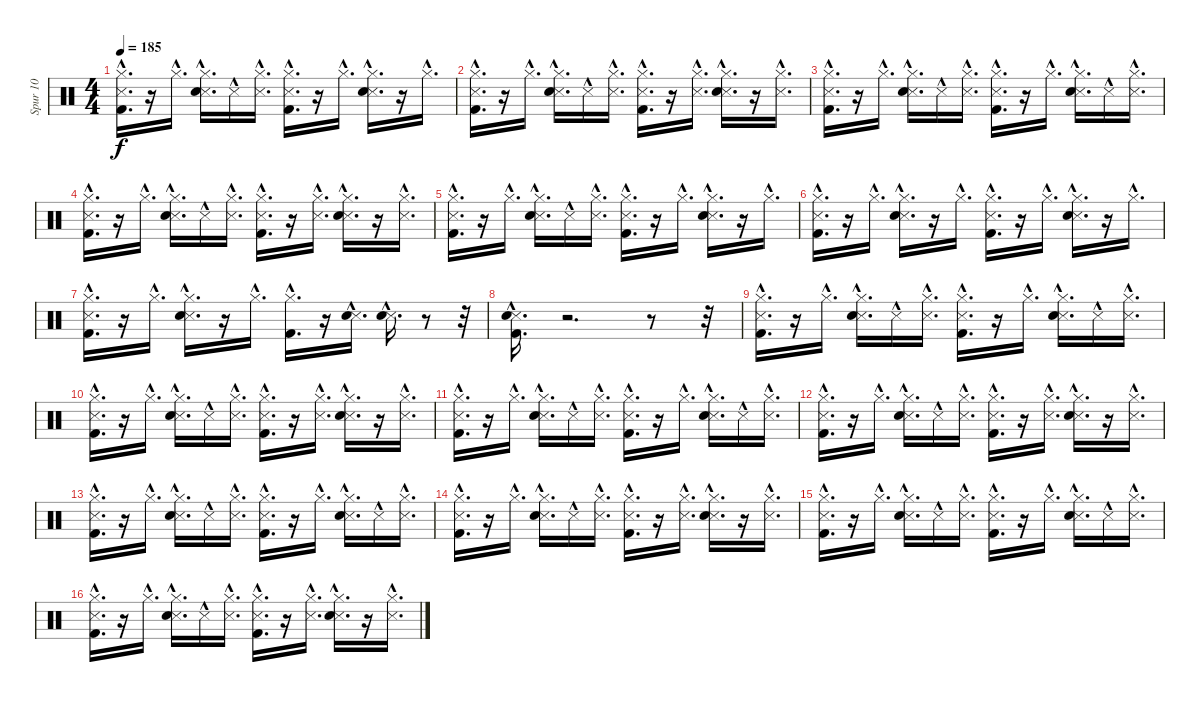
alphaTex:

\track ("Spur 10" "Spur 10") {instrument percussion}
\staff {score}
\articulation defaults
\ts (4 4)
\tempo 185
\clef neutral
\ks c
("Metronome (hit)"{hac} "Hi-Hat (closed)"{hac} "Kick (hit) 2"{hac}).16{d dy f} r.16 "Hi-Hat (closed)"{hac}.16{d} ("Metronome (hit)"{hac} "Hi-Hat (closed)"{hac} "Snare (hit) 2"{hac}).16{d} "Metronome (hit)"{hac}.16 ("Metronome (hit)"{hac} "Hi-Hat (closed)"{hac}).16{d} ("Metronome (hit)"{hac} "Hi-Hat (closed)"{hac} "Kick (hit) 2"{hac}).16{d} r.16 "Hi-Hat (closed)"{hac}.16{d} ("Metronome (hit)"{hac} "Hi-Hat (closed)"{hac} "Snare (hit) 2"{hac}).16{d} r.16 "Hi-Hat (closed)"{hac}.16{d} |
("Metronome (hit)"{hac} "Kick (hit) 2"{hac} "Hi-Hat (closed)"{hac}).16{d} r.16 "Hi-Hat (closed)"{hac}.16{d} ("Metronome (hit)"{hac} "Snare (hit) 2"{hac} "Hi-Hat (closed)"{hac}).16{d} "Metronome (hit)"{hac}.16 ("Metronome (hit)"{hac} "Hi-Hat (closed)"{hac}).16{d} ("Metronome (hit)"{hac} "Kick (hit) 2"{hac} "Hi-Hat (closed)"{hac}).16{d} r.16 ("Metronome (hit)"{hac} "Hi-Hat (closed)"{hac}).16{d} ("Metronome (hit)"{hac} "Snare (hit) 2"{hac} "Hi-Hat (closed)"{hac}).16{d} r.16 ("Metronome (hit)"{hac} "Hi-Hat (closed)"{hac}).16{d} |
("Metronome (hit)"{hac} "Kick (hit) 2"{hac} "Hi-Hat (closed)"{hac}).16{d} r.16 "Hi-Hat (closed)"{hac}.16{d} ("Metronome (hit)"{hac} "Snare (hit) 2"{hac} "Hi-Hat (closed)"{hac}).16{d} "Metronome (hit)"{hac}.16 ("Metronome (hit)"{hac} "Hi-Hat (closed)"{hac}).16{d} ("Metronome (hit)"{hac} "Kick (hit) 2"{hac} "Hi-Hat (closed)"{hac}).16{d} r.16 "Hi-Hat (closed)"{hac}.16{d} ("Metronome (hit)"{hac} "Snare (hit) 2"{hac} "Hi-Hat (closed)"{hac}).16{d} "Metronome (hit)"{hac}.16 ("Metronome (hit)"{hac} "Hi-Hat (closed)"{hac}).16{d} |
("Metronome (hit)"{hac} "Kick (hit) 2"{hac} "Hi-Hat (closed)"{hac}).16{d} r.16 "Hi-Hat (closed)"{hac}.16{d} ("Metronome (hit)"{hac} "Snare (hit) 2"{hac} "Hi-Hat (closed)"{hac}).16{d} "Metronome (hit)"{hac}.16 ("Metronome (hit)"{hac} "Hi-Hat (closed)"{hac}).16{d} ("Metronome (hit)"{hac} "Kick (hit) 2"{hac} "Hi-Hat (closed)"{hac}).16{d} r.16 ("Metronome (hit)"{hac} "Hi-Hat (closed)"{hac}).16{d} ("Metronome (hit)"{hac} "Snare (hit) 2"{hac} "Hi-Hat (closed)"{hac}).16{d} r.16 ("Metronome (hit)"{hac} "Hi-Hat (closed)"{hac}).16{d} |
("Metronome (hit)"{hac} "Hi-Hat (closed)"{hac} "Kick (hit) 2"{hac}).16{d} r.16 "Hi-Hat (closed)"{hac}.16{d} ("Metronome (hit)"{hac} "Hi-Hat (closed)"{hac} "Snare (hit) 2"{hac}).16{d} "Metronome (hit)"{hac}.16 ("Metronome (hit)"{hac} "Hi-Hat (closed)"{hac}).16{d} ("Metronome (hit)"{hac} "Hi-Hat (closed)"{hac} "Kick (hit) 2"{hac}).16{d} r.16 "Hi-Hat (closed)"{hac}.16{d} ("Metronome (hit)"{hac} "Hi-Hat (closed)"{hac} "Snare (hit) 2"{hac}).16{d} r.16 "Hi-Hat (closed)"{hac}.16{d} |
("Metronome (hit)"{hac} "Kick (hit) 2"{hac} "Hi-Hat (closed)"{hac}).16{d} r.16 "Hi-Hat (closed)"{hac}.16{d} ("Metronome (hit)"{hac} "Snare (hit) 2"{hac} "Hi-Hat (closed)"{hac}).16{d} r.16 "Hi-Hat (closed)"{hac}.16{d} ("Metronome (hit)"{hac} "Kick (hit) 2"{hac} "Hi-Hat (closed)"{hac}).16{d} r.16 "Hi-Hat (closed)"{hac}.16{d} ("Metronome (hit)"{hac} "Snare (hit) 2"{hac} "Hi-Hat (closed)"{hac}).16{d} r.16 "Hi-Hat (closed)"{hac}.16{d} |
("Metronome (hit)"{hac} "Kick (hit) 2"{hac} "Hi-Hat (closed)"{hac}).16{d} r.16 "Hi-Hat (closed)"{hac}.16{d} ("Metronome (hit)"{hac} "Snare (hit) 2"{hac} "Hi-Hat (closed)"{hac}).16{d} r.16 "Hi-Hat (closed)"{hac}.16{d} ("Kick (hit) 2"{hac} "Hi-Hat (closed)"{hac}).16{d} r.16 ("Metronome (hit)"{hac} "Snare (hit) 2"{hac}).16{d} ("Metronome (hit)"{hac} "Snare (hit) 2"{hac}).16{d} r.8 r.32 |
("Metronome (hit)"{hac} "Snare (hit) 2"{hac} "Kick (hit) 2"{hac}).16{d} r.2{d} r.8 r.32 |
("Metronome (hit)"{hac} "Hi-Hat (closed)"{hac} "Kick (hit) 2"{hac}).16{d} r.16 "Hi-Hat (closed)"{hac}.16{d} ("Metronome (hit)"{hac} "Hi-Hat (closed)"{hac} "Snare (hit) 2"{hac}).16{d} "Metronome (hit)"{hac}.16 ("Metronome (hit)"{hac} "Hi-Hat (closed)"{hac}).16{d} ("Metronome (hit)"{hac} "Hi-Hat (closed)"{hac} "Kick (hit) 2"{hac}).16{d} r.16 "Hi-Hat (closed)"{hac}.16{d} ("Metronome (hit)"{hac} "Hi-Hat (closed)"{hac} "Snare (hit) 2"{hac}).16{d} "Metronome (hit)"{hac}.16 ("Metronome (hit)"{hac} "Hi-Hat (closed)"{hac}).16{d} |
("Metronome (hit)"{hac} "Kick (hit) 2"{hac} "Hi-Hat (closed)"{hac}).16{d} r.16 "Hi-Hat (closed)"{hac}.16{d} ("Metronome (hit)"{hac} "Snare (hit) 2"{hac} "Hi-Hat (closed)"{hac}).16{d} "Metronome (hit)"{hac}.16 ("Metronome (hit)"{hac} "Hi-Hat (closed)"{hac}).16{d} ("Metronome (hit)"{hac} "Kick (hit) 2"{hac} "Hi-Hat (closed)"{hac}).16{d} r.16 ("Metronome (hit)"{hac} "Hi-Hat (closed)"{hac}).16{d} ("Metronome (hit)"{hac} "Snare (hit) 2"{hac} "Hi-Hat (closed)"{hac}).16{d} r.16 ("Metronome (hit)"{hac} "Hi-Hat (closed)"{hac}).16{d} |
("Metronome (hit)"{hac} "Kick (hit) 2"{hac} "Hi-Hat (closed)"{hac}).16{d} r.16 "Hi-Hat (closed)"{hac}.16{d} ("Metronome (hit)"{hac} "Snare (hit) 2"{hac} "Hi-Hat (closed)"{hac}).16{d} "Metronome (hit)"{hac}.16 ("Metronome (hit)"{hac} "Hi-Hat (closed)"{hac}).16{d} ("Metronome (hit)"{hac} "Kick (hit) 2"{hac} "Hi-Hat (closed)"{hac}).16{d} r.16 "Hi-Hat (closed)"{hac}.16{d} ("Metronome (hit)"{hac} "Snare (hit) 2"{hac} "Hi-Hat (closed)"{hac}).16{d} "Metronome (hit)"{hac}.16 ("Metronome (hit)"{hac} "Hi-Hat (closed)"{hac}).16{d} |
("Metronome (hit)"{hac} "Kick (hit) 2"{hac} "Hi-Hat (closed)"{hac}).16{d} r.16 "Hi-Hat (closed)"{hac}.16{d} ("Metronome (hit)"{hac} "Snare (hit) 2"{hac} "Hi-Hat (closed)"{hac}).16{d} "Metronome (hit)"{hac}.16 ("Metronome (hit)"{hac} "Hi-Hat (closed)"{hac}).16{d} ("Metronome (hit)"{hac} "Kick (hit) 2"{hac} "Hi-Hat (closed)"{hac}).16{d} r.16 ("Metronome (hit)"{hac} "Hi-Hat (closed)"{hac}).16{d} ("Metronome (hit)"{hac} "Snare (hit) 2"{hac} "Hi-Hat (closed)"{hac}).16{d} r.16 ("Metronome (hit)"{hac} "Hi-Hat (closed)"{hac}).16{d} |
("Metronome (hit)"{hac} "Hi-Hat (closed)"{hac} "Kick (hit) 2"{hac}).16{d} r.16 "Hi-Hat (closed)"{hac}.16{d} ("Metronome (hit)"{hac} "Hi-Hat (closed)"{hac} "Snare (hit) 2"{hac}).16{d} "Metronome (hit)"{hac}.16 ("Metronome (hit)"{hac} "Hi-Hat (closed)"{hac}).16{d} ("Metronome (hit)"{hac} "Hi-Hat (closed)"{hac} "Kick (hit) 2"{hac}).16{d} r.16 "Hi-Hat (closed)"{hac}.16{d} ("Metronome (hit)"{hac} "Hi-Hat (closed)"{hac} "Snare (hit) 2"{hac}).16{d} "Metronome (hit)"{hac}.16 ("Metronome (hit)"{hac} "Hi-Hat (closed)"{hac}).16{d} |
("Metronome (hit)"{hac} "Kick (hit) 2"{hac} "Hi-Hat (closed)"{hac}).16{d} r.16 "Hi-Hat (closed)"{hac}.16{d} ("Metronome (hit)"{hac} "Snare (hit) 2"{hac} "Hi-Hat (closed)"{hac}).16{d} "Metronome (hit)"{hac}.16 ("Metronome (hit)"{hac} "Hi-Hat (closed)"{hac}).16{d} ("Metronome (hit)"{hac} "Kick (hit) 2"{hac} "Hi-Hat (closed)"{hac}).16{d} r.16 ("Metronome (hit)"{hac} "Hi-Hat (closed)"{hac}).16{d} ("Metronome (hit)"{hac} "Snare (hit) 2"{hac} "Hi-Hat (closed)"{hac}).16{d} r.16 ("Metronome (hit)"{hac} "Hi-Hat (closed)"{hac}).16{d} |
("Metronome (hit)"{hac} "Kick (hit) 2"{hac} "Hi-Hat (closed)"{hac}).16{d} r.16 "Hi-Hat (closed)"{hac}.16{d} ("Metronome (hit)"{hac} "Snare (hit) 2"{hac} "Hi-Hat (closed)"{hac}).16{d} "Metronome (hit)"{hac}.16 ("Metronome (hit)"{hac} "Hi-Hat (closed)"{hac}).16{d} ("Metronome (hit)"{hac} "Kick (hit) 2"{hac} "Hi-Hat (closed)"{hac}).16{d} r.16 "Hi-Hat (closed)"{hac}.16{d} ("Metronome (hit)"{hac} "Snare (hit) 2"{hac} "Hi-Hat (closed)"{hac}).16{d} "Metronome (hit)"{hac}.16 ("Metronome (hit)"{hac} "Hi-Hat (closed)"{hac}).16{d} |
("Metronome (hit)"{hac} "Kick (hit) 2"{hac} "Hi-Hat (closed)"{hac}).16{d} r.16 "Hi-Hat (closed)"{hac}.16{d} ("Metronome (hit)"{hac} "Snare (hit) 2"{hac} "Hi-Hat (closed)"{hac}).16{d} "Metronome (hit)"{hac}.16 ("Metronome (hit)"{hac} "Hi-Hat (closed)"{hac}).16{d} ("Metronome (hit)"{hac} "Kick (hit) 2"{hac} "Hi-Hat (closed)"{hac}).16{d} r.16 ("Metronome (hit)"{hac} "Hi-Hat (closed)"{hac}).16{d} ("Metronome (hit)"{hac} "Snare (hit) 2"{hac} "Hi-Hat (closed)"{hac}).16{d} r.16 ("Metronome (hit)"{hac} "Hi-Hat (closed)"{hac}).16{d}
